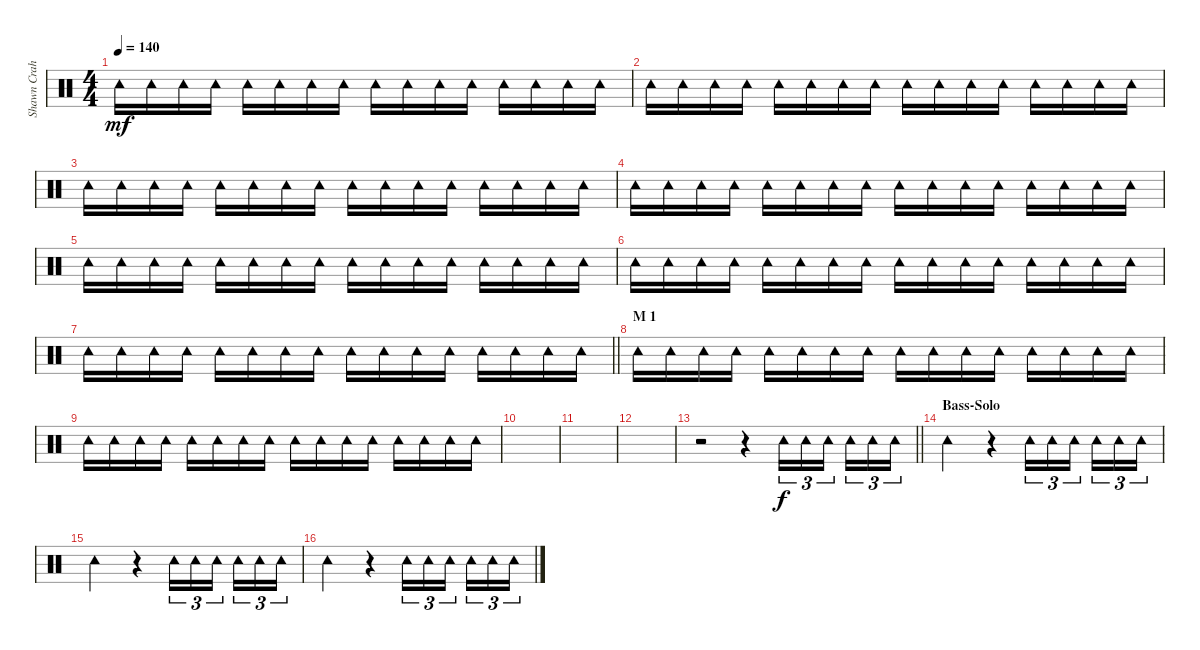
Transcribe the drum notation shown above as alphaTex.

\track ("Shawn Crahan" "Shawn Crah") {instrument percussion}
\staff {score}
\articulation defaults
\ts (4 4)
\tempo 140
\clef neutral
\ks c "Tambourine (hit)".16{dy mf} "Tambourine (hit)".16 "Tambourine (hit)".16 "Tambourine (hit)".16 "Tambourine (hit)".16 "Tambourine (hit)".16 "Tambourine (hit)".16 "Tambourine (hit)".16 "Tambourine (hit)".16 "Tambourine (hit)".16 "Tambourine (hit)".16 "Tambourine (hit)".16 "Tambourine (hit)".16 "Tambourine (hit)".16 "Tambourine (hit)".16 "Tambourine (hit)".16
|
"Tambourine (hit)".16 "Tambourine (hit)".16 "Tambourine (hit)".16 "Tambourine (hit)".16 "Tambourine (hit)".16 "Tambourine (hit)".16 "Tambourine (hit)".16 "Tambourine (hit)".16 "Tambourine (hit)".16 "Tambourine (hit)".16 "Tambourine (hit)".16 "Tambourine (hit)".16 "Tambourine (hit)".16 "Tambourine (hit)".16 "Tambourine (hit)".16 "Tambourine (hit)".16 |
"Tambourine (hit)".16 "Tambourine (hit)".16 "Tambourine (hit)".16 "Tambourine (hit)".16 "Tambourine (hit)".16 "Tambourine (hit)".16 "Tambourine (hit)".16 "Tambourine (hit)".16 "Tambourine (hit)".16 "Tambourine (hit)".16 "Tambourine (hit)".16 "Tambourine (hit)".16 "Tambourine (hit)".16 "Tambourine (hit)".16 "Tambourine (hit)".16 "Tambourine (hit)".16 |
"Tambourine (hit)".16 "Tambourine (hit)".16 "Tambourine (hit)".16 "Tambourine (hit)".16 "Tambourine (hit)".16 "Tambourine (hit)".16 "Tambourine (hit)".16 "Tambourine (hit)".16 "Tambourine (hit)".16 "Tambourine (hit)".16 "Tambourine (hit)".16 "Tambourine (hit)".16 "Tambourine (hit)".16 "Tambourine (hit)".16 "Tambourine (hit)".16 "Tambourine (hit)".16 |
"Tambourine (hit)".16 "Tambourine (hit)".16 "Tambourine (hit)".16 "Tambourine (hit)".16 "Tambourine (hit)".16 "Tambourine (hit)".16 "Tambourine (hit)".16 "Tambourine (hit)".16 "Tambourine (hit)".16 "Tambourine (hit)".16 "Tambourine (hit)".16 "Tambourine (hit)".16 "Tambourine (hit)".16 "Tambourine (hit)".16 "Tambourine (hit)".16 "Tambourine (hit)".16 |
"Tambourine (hit)".16 "Tambourine (hit)".16 "Tambourine (hit)".16 "Tambourine (hit)".16 "Tambourine (hit)".16 "Tambourine (hit)".16 "Tambourine (hit)".16 "Tambourine (hit)".16 "Tambourine (hit)".16 "Tambourine (hit)".16 "Tambourine (hit)".16 "Tambourine (hit)".16 "Tambourine (hit)".16 "Tambourine (hit)".16 "Tambourine (hit)".16 "Tambourine (hit)".16 |
\barLineRight lightlight "Tambourine (hit)".16 "Tambourine (hit)".16 "Tambourine (hit)".16 "Tambourine (hit)".16 "Tambourine (hit)".16 "Tambourine (hit)".16 "Tambourine (hit)".16 "Tambourine (hit)".16 "Tambourine (hit)".16 "Tambourine (hit)".16 "Tambourine (hit)".16 "Tambourine (hit)".16 "Tambourine (hit)".16 "Tambourine (hit)".16 "Tambourine (hit)".16 "Tambourine (hit)".16
|
\section ("" "M 1")
"Tambourine (hit)".16 "Tambourine (hit)".16 "Tambourine (hit)".16 "Tambourine (hit)".16 "Tambourine (hit)".16 "Tambourine (hit)".16 "Tambourine (hit)".16 "Tambourine (hit)".16 "Tambourine (hit)".16 "Tambourine (hit)".16 "Tambourine (hit)".16 "Tambourine (hit)".16 "Tambourine (hit)".16 "Tambourine (hit)".16 "Tambourine (hit)".16 "Tambourine (hit)".16 |
"Tambourine (hit)".16 "Tambourine (hit)".16 "Tambourine (hit)".16 "Tambourine (hit)".16 "Tambourine (hit)".16 "Tambourine (hit)".16 "Tambourine (hit)".16 "Tambourine (hit)".16 "Tambourine (hit)".16 "Tambourine (hit)".16 "Tambourine (hit)".16 "Tambourine (hit)".16 "Tambourine (hit)".16 "Tambourine (hit)".16 "Tambourine (hit)".16 "Tambourine (hit)".16 |
|
|
|
\barLineRight lightlight
r.2 r.4 "Tambourine (hit)".16{tu (3 2) dy f} "Tambourine (hit)".16{tu (3 2)} "Tambourine (hit)".16{tu (3 2) beam splitsecondary} "Tambourine (hit)".16{tu (3 2)} "Tambourine (hit)".16{tu (3 2)} "Tambourine (hit)".16{tu (3 2)} |
\section ("" "Bass-Solo")
"Tambourine (hit)".2 r.4 "Tambourine (hit)".16{tu (3 2)} "Tambourine (hit)".16{tu (3 2)} "Tambourine (hit)".16{tu (3 2) beam splitsecondary} "Tambourine (hit)".16{tu (3 2)} "Tambourine (hit)".16{tu (3 2)} "Tambourine (hit)".16{tu (3 2)} |
"Tambourine (hit)".2 r.4 "Tambourine (hit)".16{tu (3 2)} "Tambourine (hit)".16{tu (3 2)} "Tambourine (hit)".16{tu (3 2) beam splitsecondary} "Tambourine (hit)".16{tu (3 2)} "Tambourine (hit)".16{tu (3 2)} "Tambourine (hit)".16{tu (3 2)} |
"Tambourine (hit)".2 r.4 "Tambourine (hit)".16{tu (3 2)} "Tambourine (hit)".16{tu (3 2)} "Tambourine (hit)".16{tu (3 2) beam splitsecondary} "Tambourine (hit)".16{tu (3 2)} "Tambourine (hit)".16{tu (3 2)} "Tambourine (hit)".16{tu (3 2)}
